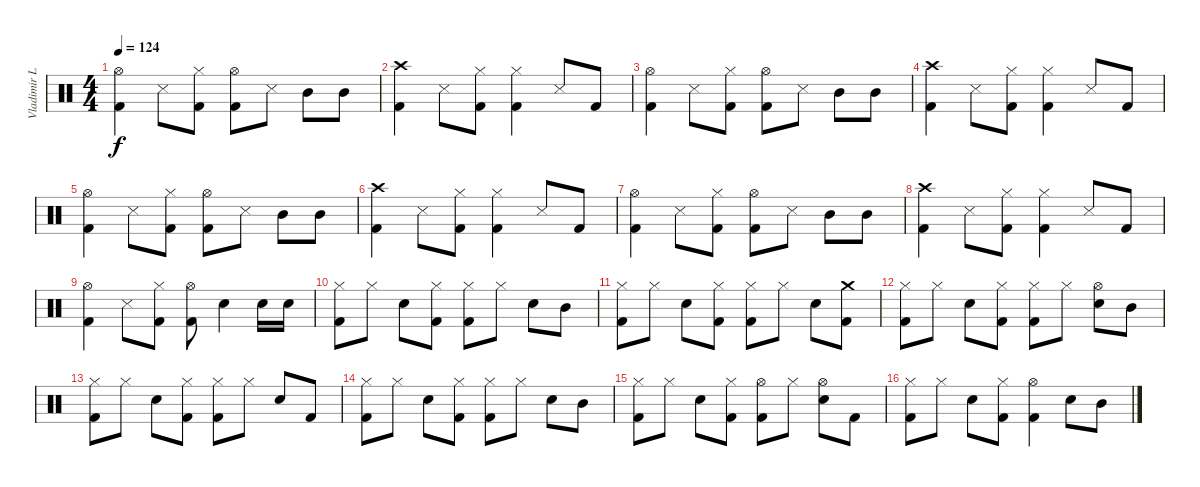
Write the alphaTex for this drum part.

\track ("Vladimir L." "Vladimir L") {instrument percussion}
\staff {score}
\articulation defaults
\ts (4 4)
\tempo 124
\clef neutral
\ks c
("Kick (hit) 2" "Hi-Hat (open)").4{dy f} "Snare (side stick) 3".8 ("Kick (hit) 2" "Hi-Hat (closed)").8 ("Kick (hit) 2" "Hi-Hat (open)").8 "Snare (side stick) 3".8 "Mid Tom (hit)".8 "Mid Tom (hit)".8 |
("Kick (hit) 2" "Crash high (hit)").4 "Snare (side stick) 3".8 ("Kick (hit) 2" "Hi-Hat (closed)").8 ("Kick (hit) 2" "Hi-Hat (closed)").4 "Snare (side stick) 3".8 "Kick (hit) 2".8 |
("Kick (hit) 2" "Hi-Hat (open)").4 "Snare (side stick) 3".8 ("Kick (hit) 2" "Hi-Hat (closed)").8 ("Kick (hit) 2" "Hi-Hat (open)").8 "Snare (side stick) 3".8 "Mid Tom (hit)".8 "Mid Tom (hit)".8 |
("Kick (hit) 2" "Crash high (hit)").4 "Snare (side stick) 3".8 ("Kick (hit) 2" "Hi-Hat (closed)").8 ("Kick (hit) 2" "Hi-Hat (closed)").4 "Snare (side stick) 3".8 "Kick (hit) 2".8 |
("Kick (hit) 2" "Hi-Hat (open)").4 "Snare (side stick) 3".8 ("Kick (hit) 2" "Hi-Hat (closed)").8 ("Kick (hit) 2" "Hi-Hat (open)").8 "Snare (side stick) 3".8 "Mid Tom (hit)".8 "Mid Tom (hit)".8 |
("Kick (hit) 2" "Crash high (hit)").4 "Snare (side stick) 3".8 ("Kick (hit) 2" "Hi-Hat (closed)").8 ("Kick (hit) 2" "Hi-Hat (closed)").4 "Snare (side stick) 3".8 "Kick (hit) 2".8 |
("Kick (hit) 2" "Hi-Hat (open)").4 "Snare (side stick) 3".8 ("Kick (hit) 2" "Hi-Hat (closed)").8 ("Kick (hit) 2" "Hi-Hat (open)").8 "Snare (side stick) 3".8 "Mid Tom (hit)".8 "Mid Tom (hit)".8 |
("Kick (hit) 2" "Crash high (hit)").4 "Snare (side stick) 3".8 ("Kick (hit) 2" "Hi-Hat (closed)").8 ("Kick (hit) 2" "Hi-Hat (closed)").4 "Snare (side stick) 3".8 "Kick (hit) 2".8 |
("Kick (hit) 2" "Hi-Hat (open)").4 "Snare (side stick) 3".8 ("Kick (hit) 2" "Hi-Hat (closed)").8 ("Kick (hit) 2" "Hi-Hat (open)").8 "Electric Snare (hit)".4 "Electric Snare (hit)".16 "Electric Snare (hit)".16 |
("Kick (hit) 2" "Hi-Hat (closed)").8 "Hi-Hat (closed)".8 "Electric Snare (hit)".8 ("Kick (hit) 2" "Hi-Hat (closed)").8 ("Kick (hit) 2" "Hi-Hat (closed)").8 "Hi-Hat (closed)".8 "Electric Snare (hit)".8 "Mid Tom (hit)".8 |
("Kick (hit) 2" "Hi-Hat (closed)").8 "Hi-Hat (closed)".8 "Electric Snare (hit)".8 ("Kick (hit) 2" "Hi-Hat (closed)").8 ("Kick (hit) 2" "Hi-Hat (closed)").8 "Hi-Hat (closed)".8 "Electric Snare (hit)".8 ("Kick (hit) 2" "Crash medium (hit)").8 |
("Kick (hit) 2" "Hi-Hat (closed)").8 "Hi-Hat (closed)".8 "Electric Snare (hit)".8 ("Kick (hit) 2" "Hi-Hat (closed)").8 ("Kick (hit) 2" "Hi-Hat (closed)").8 "Hi-Hat (closed)".8 ("Electric Snare (hit)" "Hi-Hat (open)").8 "Mid Tom (hit)".8 |
("Kick (hit) 2" "Hi-Hat (closed)").8 "Hi-Hat (closed)".8 "Electric Snare (hit)".8 ("Kick (hit) 2" "Hi-Hat (closed)").8 ("Kick (hit) 2" "Hi-Hat (closed)").8 "Hi-Hat (closed)".8 "Electric Snare (hit)".8 "Kick (hit) 2".8 |
("Kick (hit) 2" "Hi-Hat (closed)").8 "Hi-Hat (closed)".8 "Electric Snare (hit)".8 ("Kick (hit) 2" "Hi-Hat (closed)").8 ("Kick (hit) 2" "Hi-Hat (closed)").8 "Hi-Hat (closed)".8 "Electric Snare (hit)".8 "Mid Tom (hit)".8 |
("Kick (hit) 2" "Hi-Hat (closed)").8 "Hi-Hat (closed)".8 "Electric Snare (hit)".8 ("Kick (hit) 2" "Hi-Hat (closed)").8 ("Kick (hit) 2" "Hi-Hat (open)").8 "Hi-Hat (closed)".8 ("Electric Snare (hit)" "Hi-Hat (open)").8 "Kick (hit) 2".8 |
("Kick (hit) 2" "Hi-Hat (closed)").8 "Hi-Hat (closed)".8 "Electric Snare (hit)".8 ("Kick (hit) 2" "Hi-Hat (closed)").8 ("Kick (hit) 2" "Hi-Hat (open)").4 "Electric Snare (hit)".8 "Mid Tom (hit)".8
